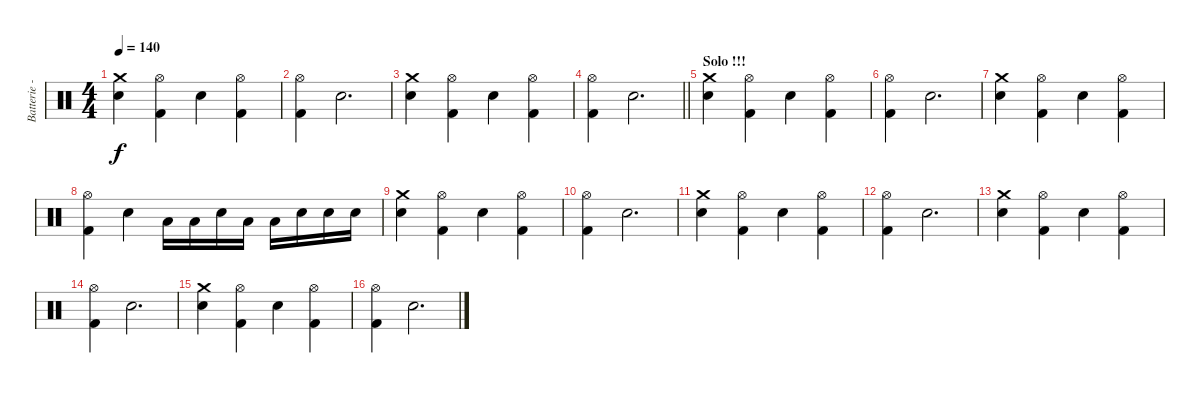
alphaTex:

\track ("Batterie - Anders Johansson" "Batterie -") {instrument percussion}
\staff {score}
\articulation defaults
\ts (4 4)
\tempo 140
\clef neutral
\ks c
("Crash medium (hit)" "Electric Snare (hit)").4{dy f} ("Hi-Hat (open)" "Kick (hit) 2").4 "Electric Snare (hit)".4 ("Hi-Hat (open)" "Kick (hit) 2").4 |
("Hi-Hat (open)" "Kick (hit) 2").4 "Electric Snare (hit)".2{d} |
("Crash medium (hit)" "Electric Snare (hit)").4 ("Hi-Hat (open)" "Kick (hit) 2").4 "Electric Snare (hit)".4 ("Hi-Hat (open)" "Kick (hit) 2").4 |
\barLineRight lightlight
("Hi-Hat (open)" "Kick (hit) 2").4 "Electric Snare (hit)".2{d} |
\section ("" "Solo !!!")
("Crash medium (hit)" "Electric Snare (hit)").4 ("Hi-Hat (open)" "Kick (hit) 2").4 "Electric Snare (hit)".4 ("Hi-Hat (open)" "Kick (hit) 2").4 |
("Hi-Hat (open)" "Kick (hit) 2").4 "Electric Snare (hit)".2{d} |
("Crash medium (hit)" "Electric Snare (hit)").4 ("Hi-Hat (open)" "Kick (hit) 2").4 "Electric Snare (hit)".4 ("Hi-Hat (open)" "Kick (hit) 2").4 |
("Hi-Hat (open)" "Kick (hit) 2").4 "Electric Snare (hit)".4 "Low Tom (hit)".16 "Low Tom (hit)".16 "Electric Snare (hit)".16 "Low Tom (hit)".16 "Low Tom (hit)".16 "Electric Snare (hit)".16 "Electric Snare (hit)".16 "Electric Snare (hit)".16 |
("Crash medium (hit)" "Electric Snare (hit)").4 ("Hi-Hat (open)" "Kick (hit) 2").4 "Electric Snare (hit)".4 ("Hi-Hat (open)" "Kick (hit) 2").4 |
("Hi-Hat (open)" "Kick (hit) 2").4 "Electric Snare (hit)".2{d} |
("Crash medium (hit)" "Electric Snare (hit)").4 ("Hi-Hat (open)" "Kick (hit) 2").4 "Electric Snare (hit)".4 ("Hi-Hat (open)" "Kick (hit) 2").4 |
("Hi-Hat (open)" "Kick (hit) 2").4 "Electric Snare (hit)".2{d} |
("Crash medium (hit)" "Electric Snare (hit)").4 ("Hi-Hat (open)" "Kick (hit) 2").4 "Electric Snare (hit)".4 ("Hi-Hat (open)" "Kick (hit) 2").4 |
("Hi-Hat (open)" "Kick (hit) 2").4 "Electric Snare (hit)".2{d} |
("Crash medium (hit)" "Electric Snare (hit)").4 ("Hi-Hat (open)" "Kick (hit) 2").4 "Electric Snare (hit)".4 ("Hi-Hat (open)" "Kick (hit) 2").4 |
("Hi-Hat (open)" "Kick (hit) 2").4 "Electric Snare (hit)".2{d}
